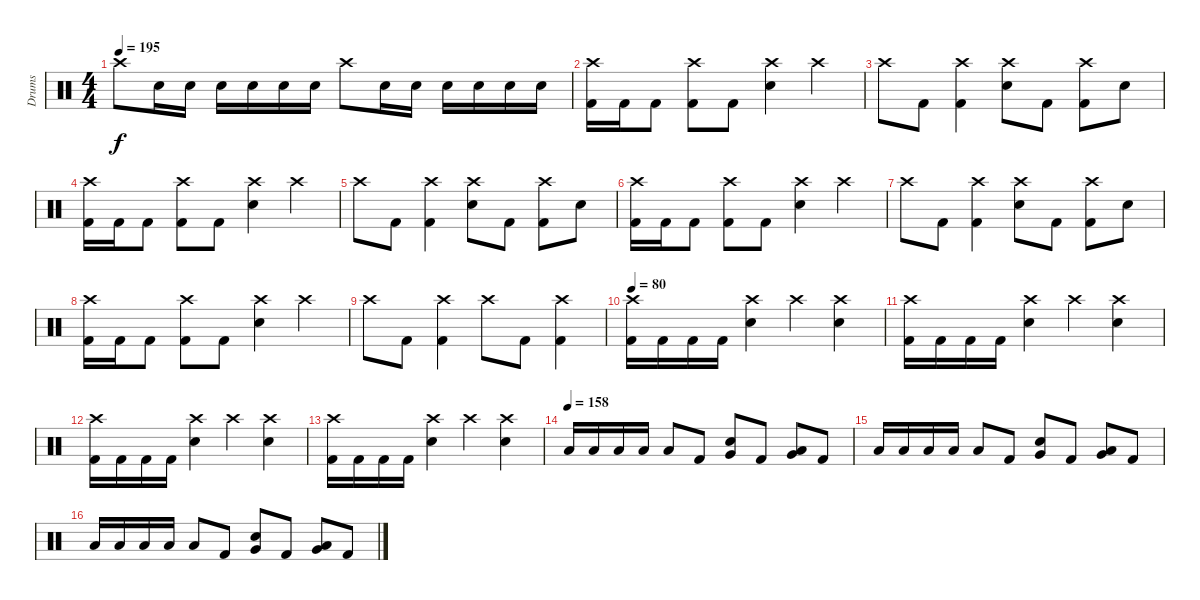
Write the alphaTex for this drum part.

\track ("Drums" "Drums") {instrument percussion}
\staff {score}
\articulation defaults
\ts (4 4)
\tempo 195
\clef neutral
\ks c "Crash high (hit)".8{dy f} "Electric Snare (hit)".16 "Electric Snare (hit)".16 "Electric Snare (hit)".16 "Electric Snare (hit)".16 "Electric Snare (hit)".16 "Electric Snare (hit)".16 "Crash high (hit)".8 "Electric Snare (hit)".16 "Electric Snare (hit)".16 "Electric Snare (hit)".16 "Electric Snare (hit)".16 "Electric Snare (hit)".16 "Electric Snare (hit)".16
|
("Crash high (hit)" "Kick (hit) 2").16 "Kick (hit) 2".16 "Kick (hit) 2".8 ("Crash high (hit)" "Kick (hit) 2").8 "Kick (hit) 2".8 ("Crash high (hit)" "Electric Snare (hit)").4 "Crash high (hit)".4 |
"Crash high (hit)".8 "Kick (hit) 2".8 ("Crash high (hit)" "Kick (hit) 2").4 ("Crash high (hit)" "Electric Snare (hit)").8 "Kick (hit) 2".8 ("Crash high (hit)" "Kick (hit) 2").8 "Electric Snare (hit)".8 |
("Crash high (hit)" "Kick (hit) 2").16 "Kick (hit) 2".16 "Kick (hit) 2".8 ("Crash high (hit)" "Kick (hit) 2").8 "Kick (hit) 2".8 ("Crash high (hit)" "Electric Snare (hit)").4 "Crash high (hit)".4 |
"Crash high (hit)".8 "Kick (hit) 2".8 ("Crash high (hit)" "Kick (hit) 2").4 ("Crash high (hit)" "Electric Snare (hit)").8 "Kick (hit) 2".8 ("Crash high (hit)" "Kick (hit) 2").8 "Electric Snare (hit)".8 |
("Crash high (hit)" "Kick (hit) 2").16 "Kick (hit) 2".16 "Kick (hit) 2".8 ("Crash high (hit)" "Kick (hit) 2").8 "Kick (hit) 2".8 ("Crash high (hit)" "Electric Snare (hit)").4 "Crash high (hit)".4 |
"Crash high (hit)".8 "Kick (hit) 2".8 ("Crash high (hit)" "Kick (hit) 2").4 ("Crash high (hit)" "Electric Snare (hit)").8 "Kick (hit) 2".8 ("Crash high (hit)" "Kick (hit) 2").8 "Electric Snare (hit)".8 |
("Crash high (hit)" "Kick (hit) 2").16 "Kick (hit) 2".16 "Kick (hit) 2".8 ("Crash high (hit)" "Kick (hit) 2").8 "Kick (hit) 2".8 ("Crash high (hit)" "Electric Snare (hit)").4 "Crash high (hit)".4 |
"Crash high (hit)".8 "Kick (hit) 2".8 ("Crash high (hit)" "Kick (hit) 2").4 "Crash high (hit)".8 "Kick (hit) 2".8 ("Crash high (hit)" "Kick (hit) 2").4 |
\tempo 80
("Crash high (hit)" "Kick (hit) 2").16 "Kick (hit) 2".16 "Kick (hit) 2".16 "Kick (hit) 2".16 ("Crash high (hit)" "Electric Snare (hit)").4 "Crash high (hit)".4 ("Crash high (hit)" "Electric Snare (hit)").4 |
("Crash high (hit)" "Kick (hit) 2").16 "Kick (hit) 2".16 "Kick (hit) 2".16 "Kick (hit) 2".16 ("Crash high (hit)" "Electric Snare (hit)").4 "Crash high (hit)".4 ("Crash high (hit)" "Electric Snare (hit)").4 |
("Crash high (hit)" "Kick (hit) 2").16 "Kick (hit) 2".16 "Kick (hit) 2".16 "Kick (hit) 2".16 ("Crash high (hit)" "Electric Snare (hit)").4 "Crash high (hit)".4 ("Crash high (hit)" "Electric Snare (hit)").4 |
("Crash high (hit)" "Kick (hit) 2").16 "Kick (hit) 2".16 "Kick (hit) 2".16 "Kick (hit) 2".16 ("Crash high (hit)" "Electric Snare (hit)").4 "Crash high (hit)".4 ("Crash high (hit)" "Electric Snare (hit)").4 |
\tempo (158)
"Low Floor Tom (hit)".16 "Low Floor Tom (hit)".16 "Low Floor Tom (hit)".16 "Low Floor Tom (hit)".16 "Low Floor Tom (hit)".8 "Kick (hit) 2".8 ("Electric Snare (hit)" "Very Low Tom (hit)").8 "Kick (hit) 2".8 ("Very Low Tom (hit)" "Low Floor Tom (hit)").8 "Kick (hit) 2".8 |
"Low Floor Tom (hit)".16 "Low Floor Tom (hit)".16 "Low Floor Tom (hit)".16 "Low Floor Tom (hit)".16 "Low Floor Tom (hit)".8 "Kick (hit) 2".8 ("Electric Snare (hit)" "Very Low Tom (hit)").8 "Kick (hit) 2".8 ("Very Low Tom (hit)" "Low Floor Tom (hit)").8 "Kick (hit) 2".8 |
"Low Floor Tom (hit)".16 "Low Floor Tom (hit)".16 "Low Floor Tom (hit)".16 "Low Floor Tom (hit)".16 "Low Floor Tom (hit)".8 "Kick (hit) 2".8 ("Electric Snare (hit)" "Very Low Tom (hit)").8 "Kick (hit) 2".8 ("Very Low Tom (hit)" "Low Floor Tom (hit)").8 "Kick (hit) 2".8
